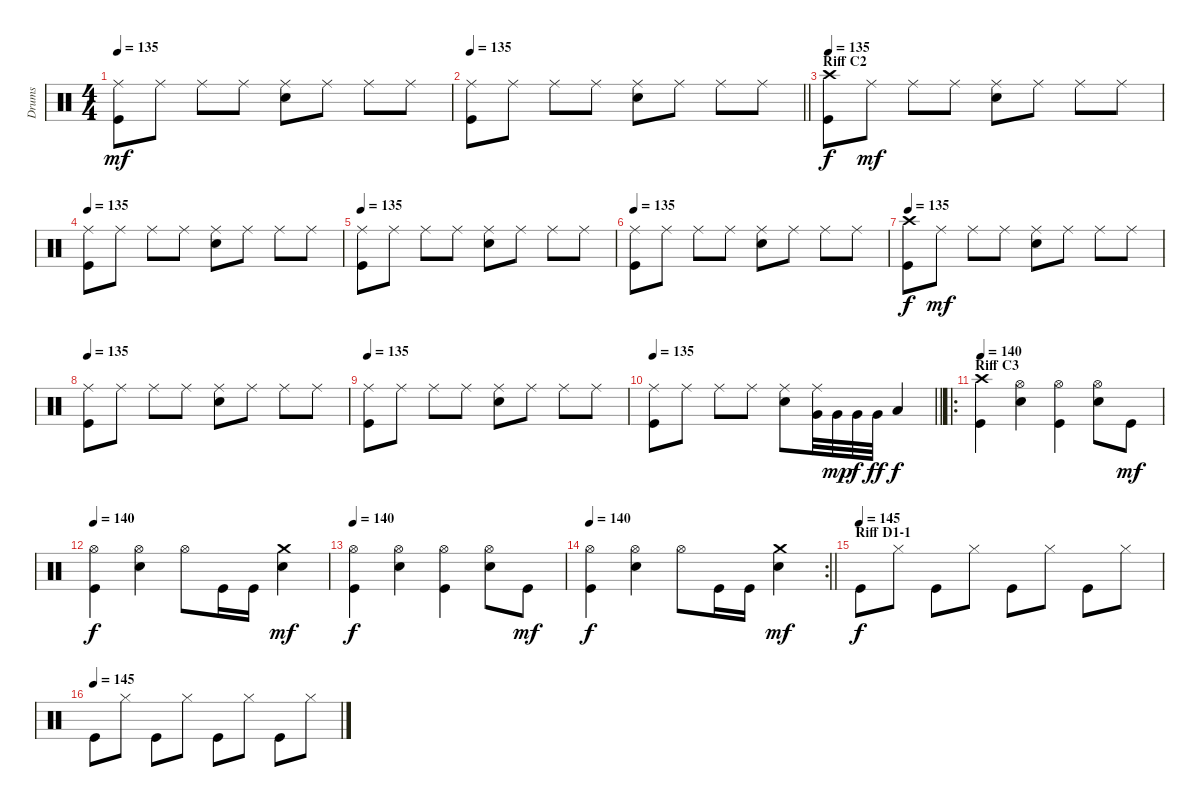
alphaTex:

\track ("Drums" "Drums") {instrument percussion}
\staff {score}
\articulation defaults
\ts (4 4)
\tempo 135
\clef neutral
\ks c
("Ride (middle)" "Kick (hit)").8{dy mf} "Ride (middle)".8 "Ride (middle)".8 "Ride (middle)".8 ("Ride (middle)" "Snare (hit) 2").8 "Ride (middle)".8 "Ride (middle)".8 "Ride (middle)".8 |
\tempo 135
\barLineRight lightlight
("Ride (middle)" "Kick (hit)").8 "Ride (middle)".8 "Ride (middle)".8 "Ride (middle)".8 ("Ride (middle)" "Snare (hit) 2").8 "Ride (middle)".8 "Ride (middle)".8 "Ride (middle)".8 |
\section ("" "Riff C2")
\tempo 135
("Crash high (hit)" "Kick (hit)").8{dy f} "Ride (middle)".8{dy mf} "Ride (middle)".8 "Ride (middle)".8 ("Ride (middle)" "Snare (hit) 2").8 "Ride (middle)".8 "Ride (middle)".8 "Ride (middle)".8 |
\tempo 135
("Ride (middle)" "Kick (hit)").8 "Ride (middle)".8 "Ride (middle)".8 "Ride (middle)".8 ("Ride (middle)" "Snare (hit) 2").8 "Ride (middle)".8 "Ride (middle)".8 "Ride (middle)".8 |
\tempo 135
("Ride (middle)" "Kick (hit)").8 "Ride (middle)".8 "Ride (middle)".8 "Ride (middle)".8 ("Ride (middle)" "Snare (hit) 2").8 "Ride (middle)".8 "Ride (middle)".8 "Ride (middle)".8 |
\tempo 135
("Ride (middle)" "Kick (hit)").8 "Ride (middle)".8 "Ride (middle)".8 "Ride (middle)".8 ("Ride (middle)" "Snare (hit) 2").8 "Ride (middle)".8 "Ride (middle)".8 "Ride (middle)".8 |
\tempo 135
("Crash high (hit)" "Kick (hit)").8{dy f} "Ride (middle)".8{dy mf} "Ride (middle)".8 "Ride (middle)".8 ("Ride (middle)" "Snare (hit) 2").8 "Ride (middle)".8 "Ride (middle)".8 "Ride (middle)".8 |
\tempo 135
("Ride (middle)" "Kick (hit)").8 "Ride (middle)".8 "Ride (middle)".8 "Ride (middle)".8 ("Ride (middle)" "Snare (hit) 2").8 "Ride (middle)".8 "Ride (middle)".8 "Ride (middle)".8 |
\tempo 135
("Ride (middle)" "Kick (hit)").8 "Ride (middle)".8 "Ride (middle)".8 "Ride (middle)".8 ("Ride (middle)" "Snare (hit) 2").8 "Ride (middle)".8 "Ride (middle)".8 "Ride (middle)".8 |
\tempo 135
\barLineRight lightlight
("Ride (middle)" "Kick (hit)").8 "Ride (middle)".8 "Ride (middle)".8 "Ride (middle)".8 ("Ride (middle)" "Snare (hit) 2").8 ("Ride (middle)" "Very Low Tom (hit)").32 "Very Low Tom (hit)".32{dy mp} "Very Low Tom (hit)".32{dy f} "Very Low Tom (hit)".32{dy ff} "Low Tom (hit)".4{dy f} |
\ro
\section ("" "Riff C3")
\tempo 140
("Crash high (hit)" "Kick (hit)").4 ("Hi-Hat (open)" "Snare (hit) 2").4 ("Hi-Hat (open)" "Kick (hit)").4 ("Hi-Hat (open)" "Snare (hit) 2").8 "Kick (hit)".8{dy mf} |
\tempo 140
("Hi-Hat (open)" "Kick (hit)").4{dy f} ("Hi-Hat (open)" "Snare (hit) 2").4 "Hi-Hat (open)".8 "Kick (hit)".16 "Kick (hit)".16 ("Crash medium (hit)" "Snare (hit) 2").4{dy mf} |
\tempo 140
("Hi-Hat (open)" "Kick (hit)").4{dy f} ("Hi-Hat (open)" "Snare (hit) 2").4 ("Hi-Hat (open)" "Kick (hit)").4 ("Hi-Hat (open)" "Snare (hit) 2").8 "Kick (hit)".8{dy mf} |
\rc 2
\tempo 140
\barLineRight lightlight
("Hi-Hat (open)" "Kick (hit)").4{dy f} ("Hi-Hat (open)" "Snare (hit) 2").4 "Hi-Hat (open)".8 "Kick (hit)".16 "Kick (hit)".16 ("Crash medium (hit)" "Snare (hit) 2").4{dy mf} |
\section ("" "Riff D1-1")
\tempo (145)
"Kick (hit)".8{dy f} "Hi-Hat (closed)".8 "Kick (hit)".8 "Hi-Hat (closed)".8 "Kick (hit)".8 "Hi-Hat (closed)".8 "Kick (hit)".8 "Hi-Hat (closed)".8 |
\tempo (145)
"Kick (hit)".8 "Hi-Hat (closed)".8 "Kick (hit)".8 "Hi-Hat (closed)".8 "Kick (hit)".8 "Hi-Hat (closed)".8 "Kick (hit)".8 "Hi-Hat (closed)".8
